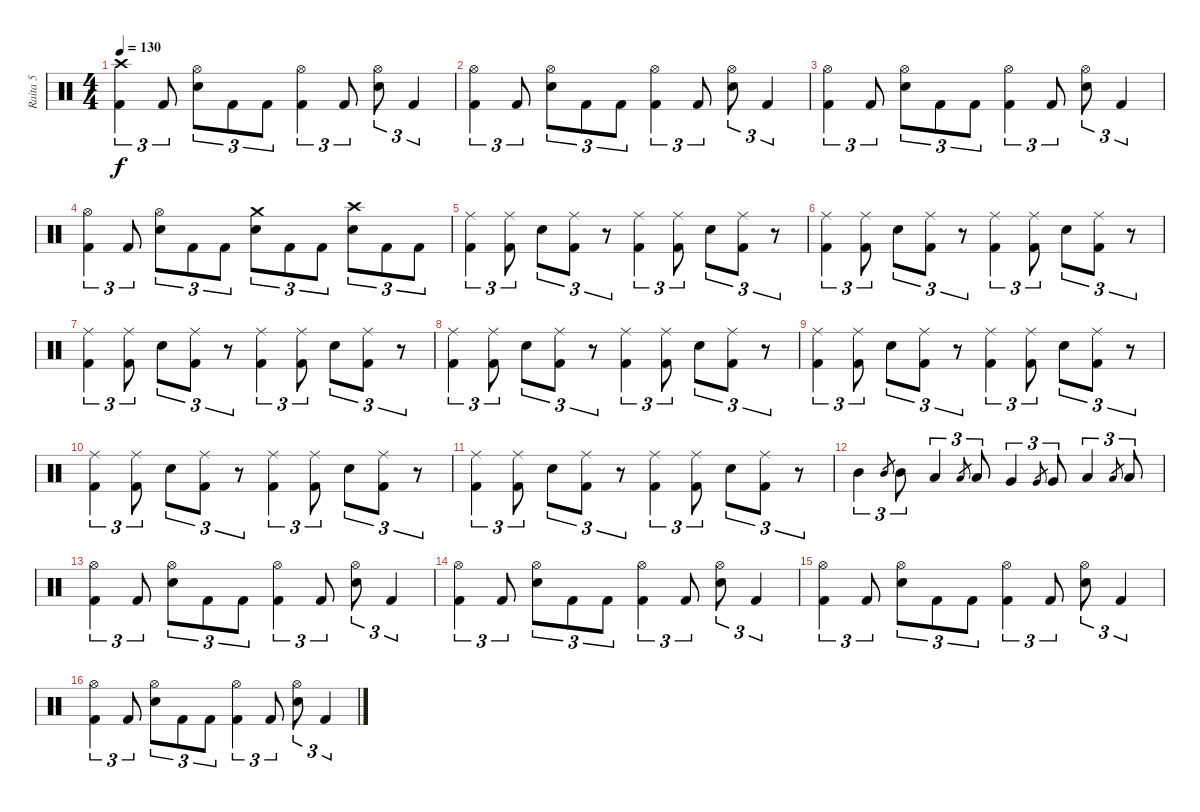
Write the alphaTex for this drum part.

\track ("Raita 5" "Raita 5") {instrument percussion}
\staff {score}
\articulation defaults
\ts (4 4)
\tempo 130
\clef neutral
\ks c
("Crash high (hit)" "Kick (hit) 2").4{tu (3 2) dy f} "Kick (hit) 2".8{tu (3 2)} ("Hi-Hat (open)" "Snare (hit) 2").8{tu (3 2)} "Kick (hit) 2".8{tu (3 2)} "Kick (hit) 2".8{tu (3 2)} ("Hi-Hat (open)" "Kick (hit) 2").4{tu (3 2)} "Kick (hit) 2".8{tu (3 2)} ("Hi-Hat (open)" "Snare (hit) 2").8{tu (3 2)} "Kick (hit) 2".4{tu (3 2)} |
("Hi-Hat (open)" "Kick (hit) 2").4{tu (3 2)} "Kick (hit) 2".8{tu (3 2)} ("Hi-Hat (open)" "Snare (hit) 2").8{tu (3 2)} "Kick (hit) 2".8{tu (3 2)} "Kick (hit) 2".8{tu (3 2)} ("Hi-Hat (open)" "Kick (hit) 2").4{tu (3 2)} "Kick (hit) 2".8{tu (3 2)} ("Hi-Hat (open)" "Snare (hit) 2").8{tu (3 2)} "Kick (hit) 2".4{tu (3 2)} |
("Hi-Hat (open)" "Kick (hit) 2").4{tu (3 2)} "Kick (hit) 2".8{tu (3 2)} ("Hi-Hat (open)" "Snare (hit) 2").8{tu (3 2)} "Kick (hit) 2".8{tu (3 2)} "Kick (hit) 2".8{tu (3 2)} ("Hi-Hat (open)" "Kick (hit) 2").4{tu (3 2)} "Kick (hit) 2".8{tu (3 2)} ("Hi-Hat (open)" "Snare (hit) 2").8{tu (3 2)} "Kick (hit) 2".4{tu (3 2)} |
("Hi-Hat (open)" "Kick (hit) 2").4{tu (3 2)} "Kick (hit) 2".8{tu (3 2)} ("Hi-Hat (open)" "Snare (hit) 2").8{tu (3 2)} "Kick (hit) 2".8{tu (3 2)} "Kick (hit) 2".8{tu (3 2)} ("Crash medium (hit)" "Snare (hit) 2").8{tu (3 2)} "Kick (hit) 2".8{tu (3 2)} "Kick (hit) 2".8{tu (3 2)} ("Crash high (hit)" "Snare (hit) 2").8{tu (3 2)} "Kick (hit) 2".8{tu (3 2)} "Kick (hit) 2".8{tu (3 2)} |
("Ride (middle)" "Kick (hit) 2").4{tu (3 2)} ("Ride (middle)" "Kick (hit) 2").8{tu (3 2)} "Snare (hit) 2".8{tu (3 2)} ("Ride (middle)" "Kick (hit) 2").8{tu (3 2)} r.8{tu (3 2)} ("Ride (middle)" "Kick (hit) 2").4{tu (3 2)} ("Ride (middle)" "Kick (hit) 2").8{tu (3 2)} "Snare (hit) 2".8{tu (3 2)} ("Ride (middle)" "Kick (hit) 2").8{tu (3 2)} r.8{tu (3 2)} |
("Ride (middle)" "Kick (hit) 2").4{tu (3 2)} ("Ride (middle)" "Kick (hit) 2").8{tu (3 2)} "Snare (hit) 2".8{tu (3 2)} ("Ride (middle)" "Kick (hit) 2").8{tu (3 2)} r.8{tu (3 2)} ("Ride (middle)" "Kick (hit) 2").4{tu (3 2)} ("Ride (middle)" "Kick (hit) 2").8{tu (3 2)} "Snare (hit) 2".8{tu (3 2)} ("Ride (middle)" "Kick (hit) 2").8{tu (3 2)} r.8{tu (3 2)} |
("Ride (middle)" "Kick (hit) 2").4{tu (3 2)} ("Ride (middle)" "Kick (hit) 2").8{tu (3 2)} "Snare (hit) 2".8{tu (3 2)} ("Ride (middle)" "Kick (hit) 2").8{tu (3 2)} r.8{tu (3 2)} ("Ride (middle)" "Kick (hit) 2").4{tu (3 2)} ("Ride (middle)" "Kick (hit) 2").8{tu (3 2)} "Snare (hit) 2".8{tu (3 2)} ("Ride (middle)" "Kick (hit) 2").8{tu (3 2)} r.8{tu (3 2)} |
("Ride (middle)" "Kick (hit) 2").4{tu (3 2)} ("Ride (middle)" "Kick (hit) 2").8{tu (3 2)} "Snare (hit) 2".8{tu (3 2)} ("Ride (middle)" "Kick (hit) 2").8{tu (3 2)} r.8{tu (3 2)} ("Ride (middle)" "Kick (hit) 2").4{tu (3 2)} ("Ride (middle)" "Kick (hit) 2").8{tu (3 2)} "Snare (hit) 2".8{tu (3 2)} ("Ride (middle)" "Kick (hit) 2").8{tu (3 2)} r.8{tu (3 2)} |
("Ride (middle)" "Kick (hit) 2").4{tu (3 2)} ("Ride (middle)" "Kick (hit) 2").8{tu (3 2)} "Snare (hit) 2".8{tu (3 2)} ("Ride (middle)" "Kick (hit) 2").8{tu (3 2)} r.8{tu (3 2)} ("Ride (middle)" "Kick (hit) 2").4{tu (3 2)} ("Ride (middle)" "Kick (hit) 2").8{tu (3 2)} "Snare (hit) 2".8{tu (3 2)} ("Ride (middle)" "Kick (hit) 2").8{tu (3 2)} r.8{tu (3 2)} |
("Ride (middle)" "Kick (hit) 2").4{tu (3 2)} ("Ride (middle)" "Kick (hit) 2").8{tu (3 2)} "Snare (hit) 2".8{tu (3 2)} ("Ride (middle)" "Kick (hit) 2").8{tu (3 2)} r.8{tu (3 2)} ("Ride (middle)" "Kick (hit) 2").4{tu (3 2)} ("Ride (middle)" "Kick (hit) 2").8{tu (3 2)} "Snare (hit) 2".8{tu (3 2)} ("Ride (middle)" "Kick (hit) 2").8{tu (3 2)} r.8{tu (3 2)} |
("Ride (middle)" "Kick (hit) 2").4{tu (3 2)} ("Ride (middle)" "Kick (hit) 2").8{tu (3 2)} "Snare (hit) 2".8{tu (3 2)} ("Ride (middle)" "Kick (hit) 2").8{tu (3 2)} r.8{tu (3 2)} ("Ride (middle)" "Kick (hit) 2").4{tu (3 2)} ("Ride (middle)" "Kick (hit) 2").8{tu (3 2)} "Snare (hit) 2".8{tu (3 2)} ("Ride (middle)" "Kick (hit) 2").8{tu (3 2)} r.8{tu (3 2)} |
"Mid Tom (hit)".4{tu (3 2)} "Mid Tom (hit)".8{gr} "Mid Tom (hit)".8{tu (3 2)} "Low Tom (hit)".4{tu (3 2)} "Low Tom (hit)".8{gr} "Low Tom (hit)".8{tu (3 2)} "Very Low Tom (hit)".4{tu (3 2)} "Very Low Tom (hit)".8{gr} "Very Low Tom (hit)".8{tu (3 2)} "Low Floor Tom (hit)".4{tu (3 2)} "Low Floor Tom (hit)".8{gr} "Low Floor Tom (hit)".8{tu (3 2)} |
("Hi-Hat (open)" "Kick (hit) 2").4{tu (3 2)} "Kick (hit) 2".8{tu (3 2)} ("Hi-Hat (open)" "Snare (hit) 2").8{tu (3 2)} "Kick (hit) 2".8{tu (3 2)} "Kick (hit) 2".8{tu (3 2)} ("Hi-Hat (open)" "Kick (hit) 2").4{tu (3 2)} "Kick (hit) 2".8{tu (3 2)} ("Hi-Hat (open)" "Snare (hit) 2").8{tu (3 2)} "Kick (hit) 2".4{tu (3 2)} |
("Hi-Hat (open)" "Kick (hit) 2").4{tu (3 2)} "Kick (hit) 2".8{tu (3 2)} ("Hi-Hat (open)" "Snare (hit) 2").8{tu (3 2)} "Kick (hit) 2".8{tu (3 2)} "Kick (hit) 2".8{tu (3 2)} ("Hi-Hat (open)" "Kick (hit) 2").4{tu (3 2)} "Kick (hit) 2".8{tu (3 2)} ("Hi-Hat (open)" "Snare (hit) 2").8{tu (3 2)} "Kick (hit) 2".4{tu (3 2)} |
("Hi-Hat (open)" "Kick (hit) 2").4{tu (3 2)} "Kick (hit) 2".8{tu (3 2)} ("Hi-Hat (open)" "Snare (hit) 2").8{tu (3 2)} "Kick (hit) 2".8{tu (3 2)} "Kick (hit) 2".8{tu (3 2)} ("Hi-Hat (open)" "Kick (hit) 2").4{tu (3 2)} "Kick (hit) 2".8{tu (3 2)} ("Hi-Hat (open)" "Snare (hit) 2").8{tu (3 2)} "Kick (hit) 2".4{tu (3 2)} |
("Hi-Hat (open)" "Kick (hit) 2").4{tu (3 2)} "Kick (hit) 2".8{tu (3 2)} ("Hi-Hat (open)" "Snare (hit) 2").8{tu (3 2)} "Kick (hit) 2".8{tu (3 2)} "Kick (hit) 2".8{tu (3 2)} ("Hi-Hat (open)" "Kick (hit) 2").4{tu (3 2)} "Kick (hit) 2".8{tu (3 2)} ("Hi-Hat (open)" "Snare (hit) 2").8{tu (3 2)} "Kick (hit) 2".4{tu (3 2)}
